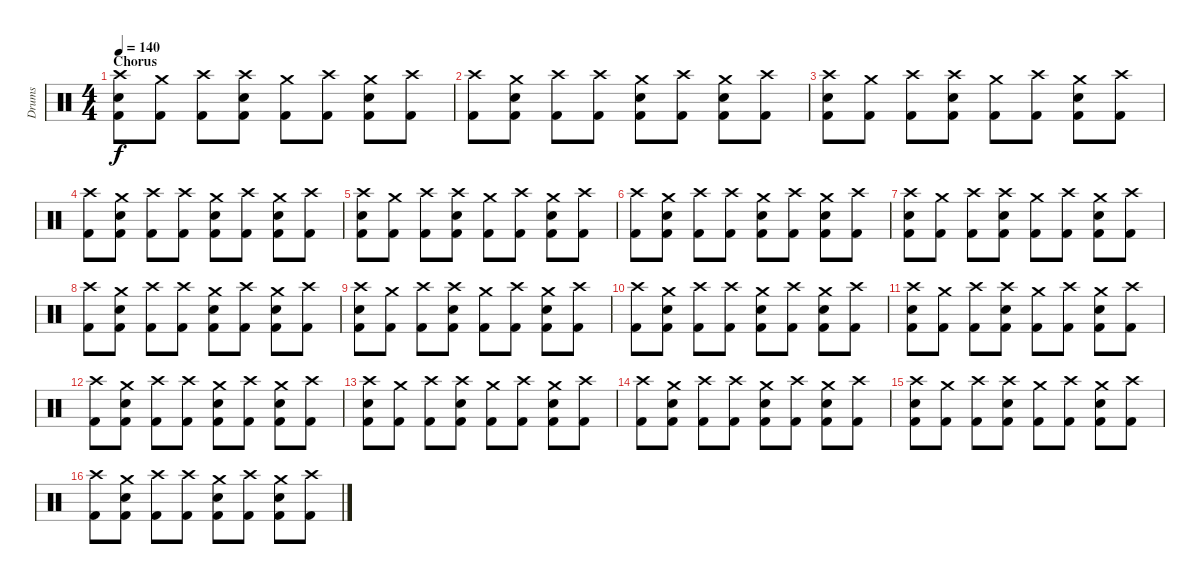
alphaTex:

\track ("Drums" "Drums") {instrument percussion}
\staff {score}
\articulation defaults
\ts (4 4)
\section ("" "Chorus")
\tempo 140
\clef neutral
\ks c
("Crash high (hit)" "Electric Snare (hit)" "Kick (hit) 2").8{dy f} ("Crash medium (hit)" "Kick (hit) 2").8 ("Crash high (hit)" "Kick (hit) 2").8 ("Crash high (hit)" "Electric Snare (hit)" "Kick (hit) 2").8 ("Crash medium (hit)" "Kick (hit) 2").8 ("Crash high (hit)" "Kick (hit) 2").8 ("Crash medium (hit)" "Electric Snare (hit)" "Kick (hit) 2").8 ("Crash high (hit)" "Kick (hit) 2").8 |
("Crash high (hit)" "Kick (hit) 2").8 ("Crash medium (hit)" "Electric Snare (hit)" "Kick (hit) 2").8 ("Crash high (hit)" "Kick (hit) 2").8 ("Crash high (hit)" "Kick (hit) 2").8 ("Crash medium (hit)" "Electric Snare (hit)" "Kick (hit) 2").8 ("Crash high (hit)" "Kick (hit) 2").8 ("Crash medium (hit)" "Electric Snare (hit)" "Kick (hit) 2").8 ("Crash high (hit)" "Kick (hit) 2").8 |
("Crash high (hit)" "Electric Snare (hit)" "Kick (hit) 2").8 ("Crash medium (hit)" "Kick (hit) 2").8 ("Crash high (hit)" "Kick (hit) 2").8 ("Crash high (hit)" "Electric Snare (hit)" "Kick (hit) 2").8 ("Crash medium (hit)" "Kick (hit) 2").8 ("Crash high (hit)" "Kick (hit) 2").8 ("Crash medium (hit)" "Electric Snare (hit)" "Kick (hit) 2").8 ("Crash high (hit)" "Kick (hit) 2").8 |
("Crash high (hit)" "Kick (hit) 2").8 ("Crash medium (hit)" "Electric Snare (hit)" "Kick (hit) 2").8 ("Crash high (hit)" "Kick (hit) 2").8 ("Crash high (hit)" "Kick (hit) 2").8 ("Crash medium (hit)" "Electric Snare (hit)" "Kick (hit) 2").8 ("Crash high (hit)" "Kick (hit) 2").8 ("Crash medium (hit)" "Electric Snare (hit)" "Kick (hit) 2").8 ("Crash high (hit)" "Kick (hit) 2").8 |
("Crash high (hit)" "Electric Snare (hit)" "Kick (hit) 2").8 ("Crash medium (hit)" "Kick (hit) 2").8 ("Crash high (hit)" "Kick (hit) 2").8 ("Crash high (hit)" "Electric Snare (hit)" "Kick (hit) 2").8 ("Crash medium (hit)" "Kick (hit) 2").8 ("Crash high (hit)" "Kick (hit) 2").8 ("Crash medium (hit)" "Electric Snare (hit)" "Kick (hit) 2").8 ("Crash high (hit)" "Kick (hit) 2").8 |
("Crash high (hit)" "Kick (hit) 2").8 ("Crash medium (hit)" "Electric Snare (hit)" "Kick (hit) 2").8 ("Crash high (hit)" "Kick (hit) 2").8 ("Crash high (hit)" "Kick (hit) 2").8 ("Crash medium (hit)" "Electric Snare (hit)" "Kick (hit) 2").8 ("Crash high (hit)" "Kick (hit) 2").8 ("Crash medium (hit)" "Electric Snare (hit)" "Kick (hit) 2").8 ("Crash high (hit)" "Kick (hit) 2").8 |
("Crash high (hit)" "Electric Snare (hit)" "Kick (hit) 2").8 ("Crash medium (hit)" "Kick (hit) 2").8 ("Crash high (hit)" "Kick (hit) 2").8 ("Crash high (hit)" "Electric Snare (hit)" "Kick (hit) 2").8 ("Crash medium (hit)" "Kick (hit) 2").8 ("Crash high (hit)" "Kick (hit) 2").8 ("Crash medium (hit)" "Electric Snare (hit)" "Kick (hit) 2").8 ("Crash high (hit)" "Kick (hit) 2").8 |
("Crash high (hit)" "Kick (hit) 2").8 ("Crash medium (hit)" "Electric Snare (hit)" "Kick (hit) 2").8 ("Crash high (hit)" "Kick (hit) 2").8 ("Crash high (hit)" "Kick (hit) 2").8 ("Crash medium (hit)" "Electric Snare (hit)" "Kick (hit) 2").8 ("Crash high (hit)" "Kick (hit) 2").8 ("Crash medium (hit)" "Electric Snare (hit)" "Kick (hit) 2").8 ("Crash high (hit)" "Kick (hit) 2").8 |
("Crash high (hit)" "Electric Snare (hit)" "Kick (hit) 2").8 ("Crash medium (hit)" "Kick (hit) 2").8 ("Crash high (hit)" "Kick (hit) 2").8 ("Crash high (hit)" "Electric Snare (hit)" "Kick (hit) 2").8 ("Crash medium (hit)" "Kick (hit) 2").8 ("Crash high (hit)" "Kick (hit) 2").8 ("Crash medium (hit)" "Electric Snare (hit)" "Kick (hit) 2").8 ("Crash high (hit)" "Kick (hit) 2").8 |
("Crash high (hit)" "Kick (hit) 2").8 ("Crash medium (hit)" "Electric Snare (hit)" "Kick (hit) 2").8 ("Crash high (hit)" "Kick (hit) 2").8 ("Crash high (hit)" "Kick (hit) 2").8 ("Crash medium (hit)" "Electric Snare (hit)" "Kick (hit) 2").8 ("Crash high (hit)" "Kick (hit) 2").8 ("Crash medium (hit)" "Electric Snare (hit)" "Kick (hit) 2").8 ("Crash high (hit)" "Kick (hit) 2").8 |
("Crash high (hit)" "Electric Snare (hit)" "Kick (hit) 2").8 ("Crash medium (hit)" "Kick (hit) 2").8 ("Crash high (hit)" "Kick (hit) 2").8 ("Crash high (hit)" "Electric Snare (hit)" "Kick (hit) 2").8 ("Crash medium (hit)" "Kick (hit) 2").8 ("Crash high (hit)" "Kick (hit) 2").8 ("Crash medium (hit)" "Electric Snare (hit)" "Kick (hit) 2").8 ("Crash high (hit)" "Kick (hit) 2").8 |
("Crash high (hit)" "Kick (hit) 2").8 ("Crash medium (hit)" "Electric Snare (hit)" "Kick (hit) 2").8 ("Crash high (hit)" "Kick (hit) 2").8 ("Crash high (hit)" "Kick (hit) 2").8 ("Crash medium (hit)" "Electric Snare (hit)" "Kick (hit) 2").8 ("Crash high (hit)" "Kick (hit) 2").8 ("Crash medium (hit)" "Electric Snare (hit)" "Kick (hit) 2").8 ("Crash high (hit)" "Kick (hit) 2").8 |
("Crash high (hit)" "Electric Snare (hit)" "Kick (hit) 2").8 ("Crash medium (hit)" "Kick (hit) 2").8 ("Crash high (hit)" "Kick (hit) 2").8 ("Crash high (hit)" "Electric Snare (hit)" "Kick (hit) 2").8 ("Crash medium (hit)" "Kick (hit) 2").8 ("Crash high (hit)" "Kick (hit) 2").8 ("Crash medium (hit)" "Electric Snare (hit)" "Kick (hit) 2").8 ("Crash high (hit)" "Kick (hit) 2").8 |
("Crash high (hit)" "Kick (hit) 2").8 ("Crash medium (hit)" "Electric Snare (hit)" "Kick (hit) 2").8 ("Crash high (hit)" "Kick (hit) 2").8 ("Crash high (hit)" "Kick (hit) 2").8 ("Crash medium (hit)" "Electric Snare (hit)" "Kick (hit) 2").8 ("Crash high (hit)" "Kick (hit) 2").8 ("Crash medium (hit)" "Electric Snare (hit)" "Kick (hit) 2").8 ("Crash high (hit)" "Kick (hit) 2").8 |
("Crash high (hit)" "Electric Snare (hit)" "Kick (hit) 2").8 ("Crash medium (hit)" "Kick (hit) 2").8 ("Crash high (hit)" "Kick (hit) 2").8 ("Crash high (hit)" "Electric Snare (hit)" "Kick (hit) 2").8 ("Crash medium (hit)" "Kick (hit) 2").8 ("Crash high (hit)" "Kick (hit) 2").8 ("Crash medium (hit)" "Electric Snare (hit)" "Kick (hit) 2").8 ("Crash high (hit)" "Kick (hit) 2").8 |
("Crash high (hit)" "Kick (hit) 2").8 ("Crash medium (hit)" "Electric Snare (hit)" "Kick (hit) 2").8 ("Crash high (hit)" "Kick (hit) 2").8 ("Crash high (hit)" "Kick (hit) 2").8 ("Crash medium (hit)" "Electric Snare (hit)" "Kick (hit) 2").8 ("Crash high (hit)" "Kick (hit) 2").8 ("Crash medium (hit)" "Electric Snare (hit)" "Kick (hit) 2").8 ("Crash high (hit)" "Kick (hit) 2").8
